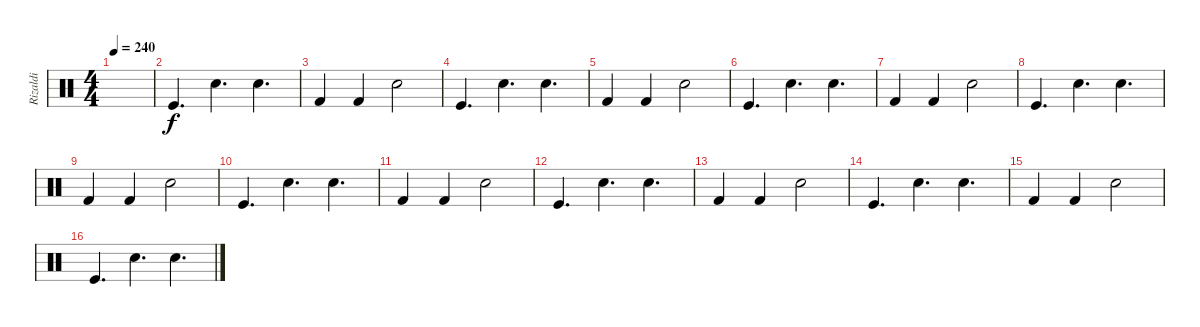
\track ("Rizaldi" "Rizaldi") {instrument percussion}
\staff {score}
\articulation defaults
\ts (4 4)
\tempo 240
\clef neutral
\ks c
|
"Kick (hit)".4{d} "Electric Snare (hit)".4{d} "Electric Snare (hit)".4{d} |
"Kick (hit) 2".4 "Kick (hit) 2".4 "Snare (hit) 2".2 |
"Kick (hit)".4{d} "Electric Snare (hit)".4{d} "Electric Snare (hit)".4{d} |
"Kick (hit) 2".4 "Kick (hit) 2".4 "Snare (hit) 2".2 |
"Kick (hit)".4{d} "Electric Snare (hit)".4{d} "Electric Snare (hit)".4{d} |
"Kick (hit) 2".4 "Kick (hit) 2".4 "Snare (hit) 2".2 |
"Kick (hit)".4{d} "Electric Snare (hit)".4{d} "Electric Snare (hit)".4{d} |
"Kick (hit) 2".4 "Kick (hit) 2".4 "Snare (hit) 2".2 |
"Kick (hit)".4{d} "Electric Snare (hit)".4{d} "Electric Snare (hit)".4{d} |
"Kick (hit) 2".4 "Kick (hit) 2".4 "Snare (hit) 2".2 |
"Kick (hit)".4{d} "Electric Snare (hit)".4{d} "Electric Snare (hit)".4{d} |
"Kick (hit) 2".4 "Kick (hit) 2".4 "Snare (hit) 2".2 |
"Kick (hit)".4{d} "Electric Snare (hit)".4{d} "Electric Snare (hit)".4{d} |
"Kick (hit) 2".4 "Kick (hit) 2".4 "Snare (hit) 2".2 |
"Kick (hit)".4{d} "Electric Snare (hit)".4{d} "Electric Snare (hit)".4{d}
